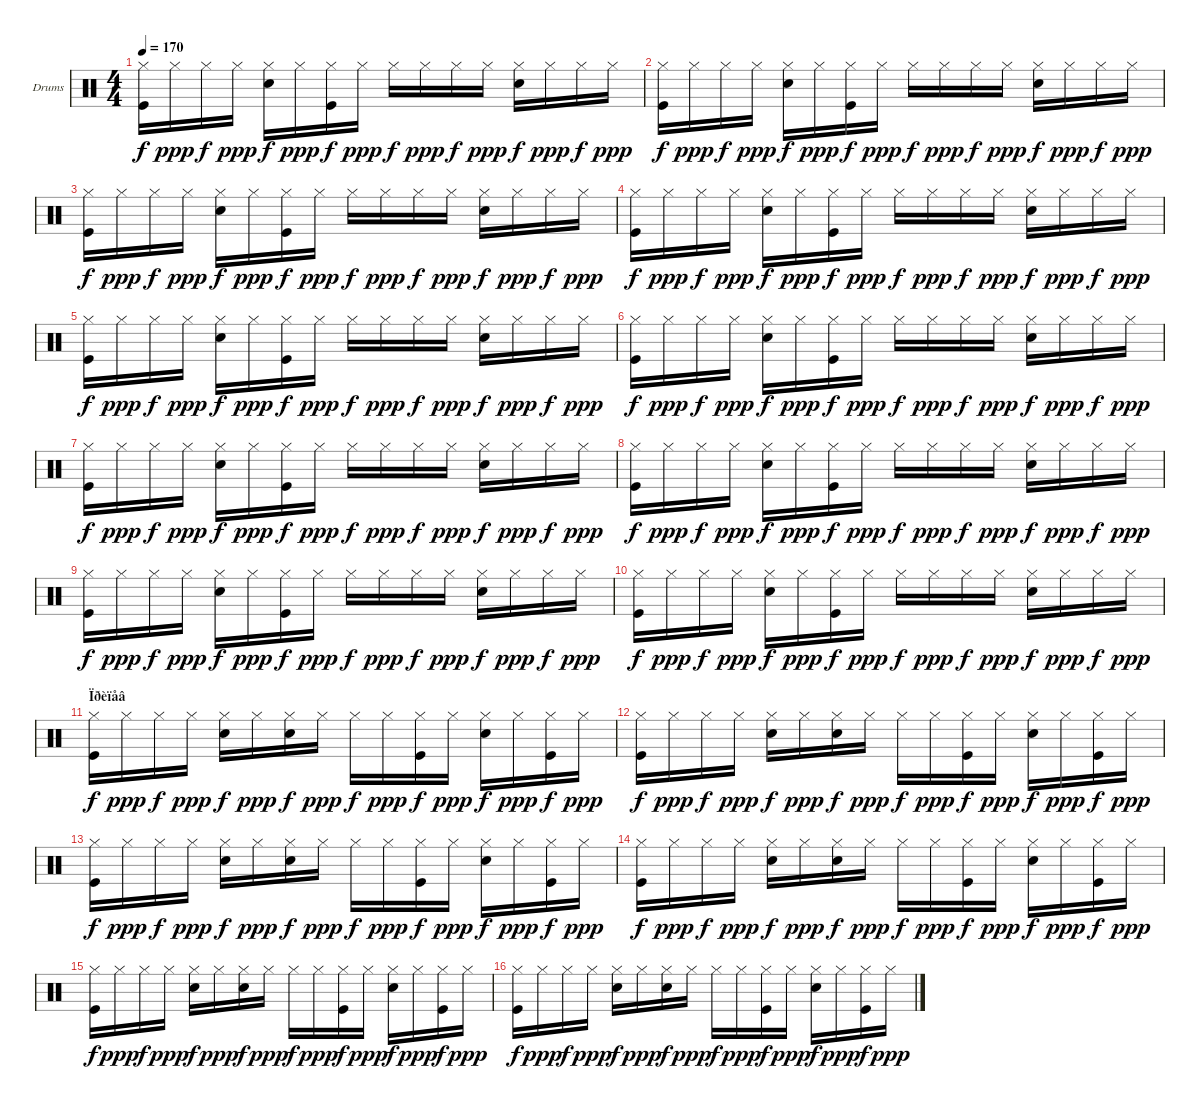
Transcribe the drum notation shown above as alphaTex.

\bracketExtendMode groupsimilarinstruments
\firstSystemTrackNameOrientation horizontal
\otherSystemsTrackNameOrientation horizontal
\track ("Drumkit" "Drums") {instrument percussion}
\staff {score}
\articulation defaults
\ts (4 4)
\tempo 170
\clef neutral
\ks c
("Hi-Hat (closed)" "Kick (hit)").16{dy f} "Hi-Hat (closed)".16{dy ppp} "Hi-Hat (closed)".16{dy f} "Hi-Hat (closed)".16{dy ppp} ("Hi-Hat (closed)" "Snare (hit) 2").16{dy f} "Hi-Hat (closed)".16{dy ppp} ("Hi-Hat (closed)" "Kick (hit)").16{dy f} "Hi-Hat (closed)".16{dy ppp} "Hi-Hat (closed)".16{dy f} "Hi-Hat (closed)".16{dy ppp} "Hi-Hat (closed)".16{dy f} "Hi-Hat (closed)".16{dy ppp} ("Hi-Hat (closed)" "Snare (hit) 2").16{dy f} "Hi-Hat (closed)".16{dy ppp} "Hi-Hat (closed)".16{dy f} "Hi-Hat (closed)".16{dy ppp} |
("Hi-Hat (closed)" "Kick (hit)").16{dy f} "Hi-Hat (closed)".16{dy ppp} "Hi-Hat (closed)".16{dy f} "Hi-Hat (closed)".16{dy ppp} ("Hi-Hat (closed)" "Snare (hit) 2").16{dy f} "Hi-Hat (closed)".16{dy ppp} ("Hi-Hat (closed)" "Kick (hit)").16{dy f} "Hi-Hat (closed)".16{dy ppp} "Hi-Hat (closed)".16{dy f} "Hi-Hat (closed)".16{dy ppp} "Hi-Hat (closed)".16{dy f} "Hi-Hat (closed)".16{dy ppp} ("Hi-Hat (closed)" "Snare (hit) 2").16{dy f} "Hi-Hat (closed)".16{dy ppp} "Hi-Hat (closed)".16{dy f} "Hi-Hat (closed)".16{dy ppp} |
("Hi-Hat (closed)" "Kick (hit)").16{dy f} "Hi-Hat (closed)".16{dy ppp} "Hi-Hat (closed)".16{dy f} "Hi-Hat (closed)".16{dy ppp} ("Hi-Hat (closed)" "Snare (hit) 2").16{dy f} "Hi-Hat (closed)".16{dy ppp} ("Hi-Hat (closed)" "Kick (hit)").16{dy f} "Hi-Hat (closed)".16{dy ppp} "Hi-Hat (closed)".16{dy f} "Hi-Hat (closed)".16{dy ppp} "Hi-Hat (closed)".16{dy f} "Hi-Hat (closed)".16{dy ppp} ("Hi-Hat (closed)" "Snare (hit) 2").16{dy f} "Hi-Hat (closed)".16{dy ppp} "Hi-Hat (closed)".16{dy f} "Hi-Hat (closed)".16{dy ppp} |
("Hi-Hat (closed)" "Kick (hit)").16{dy f} "Hi-Hat (closed)".16{dy ppp} "Hi-Hat (closed)".16{dy f} "Hi-Hat (closed)".16{dy ppp} ("Hi-Hat (closed)" "Snare (hit) 2").16{dy f} "Hi-Hat (closed)".16{dy ppp} ("Hi-Hat (closed)" "Kick (hit)").16{dy f} "Hi-Hat (closed)".16{dy ppp} "Hi-Hat (closed)".16{dy f} "Hi-Hat (closed)".16{dy ppp} "Hi-Hat (closed)".16{dy f} "Hi-Hat (closed)".16{dy ppp} ("Hi-Hat (closed)" "Snare (hit) 2").16{dy f} "Hi-Hat (closed)".16{dy ppp} "Hi-Hat (closed)".16{dy f} "Hi-Hat (closed)".16{dy ppp} |
("Hi-Hat (closed)" "Kick (hit)").16{dy f} "Hi-Hat (closed)".16{dy ppp} "Hi-Hat (closed)".16{dy f} "Hi-Hat (closed)".16{dy ppp} ("Hi-Hat (closed)" "Snare (hit) 2").16{dy f} "Hi-Hat (closed)".16{dy ppp} ("Hi-Hat (closed)" "Kick (hit)").16{dy f} "Hi-Hat (closed)".16{dy ppp} "Hi-Hat (closed)".16{dy f} "Hi-Hat (closed)".16{dy ppp} "Hi-Hat (closed)".16{dy f} "Hi-Hat (closed)".16{dy ppp} ("Hi-Hat (closed)" "Snare (hit) 2").16{dy f} "Hi-Hat (closed)".16{dy ppp} "Hi-Hat (closed)".16{dy f} "Hi-Hat (closed)".16{dy ppp} |
("Hi-Hat (closed)" "Kick (hit)").16{dy f} "Hi-Hat (closed)".16{dy ppp} "Hi-Hat (closed)".16{dy f} "Hi-Hat (closed)".16{dy ppp} ("Hi-Hat (closed)" "Snare (hit) 2").16{dy f} "Hi-Hat (closed)".16{dy ppp} ("Hi-Hat (closed)" "Kick (hit)").16{dy f} "Hi-Hat (closed)".16{dy ppp} "Hi-Hat (closed)".16{dy f} "Hi-Hat (closed)".16{dy ppp} "Hi-Hat (closed)".16{dy f} "Hi-Hat (closed)".16{dy ppp} ("Hi-Hat (closed)" "Snare (hit) 2").16{dy f} "Hi-Hat (closed)".16{dy ppp} "Hi-Hat (closed)".16{dy f} "Hi-Hat (closed)".16{dy ppp} |
("Hi-Hat (closed)" "Kick (hit)").16{dy f} "Hi-Hat (closed)".16{dy ppp} "Hi-Hat (closed)".16{dy f} "Hi-Hat (closed)".16{dy ppp} ("Hi-Hat (closed)" "Snare (hit) 2").16{dy f} "Hi-Hat (closed)".16{dy ppp} ("Hi-Hat (closed)" "Kick (hit)").16{dy f} "Hi-Hat (closed)".16{dy ppp} "Hi-Hat (closed)".16{dy f} "Hi-Hat (closed)".16{dy ppp} "Hi-Hat (closed)".16{dy f} "Hi-Hat (closed)".16{dy ppp} ("Hi-Hat (closed)" "Snare (hit) 2").16{dy f} "Hi-Hat (closed)".16{dy ppp} "Hi-Hat (closed)".16{dy f} "Hi-Hat (closed)".16{dy ppp} |
("Hi-Hat (closed)" "Kick (hit)").16{dy f} "Hi-Hat (closed)".16{dy ppp} "Hi-Hat (closed)".16{dy f} "Hi-Hat (closed)".16{dy ppp} ("Hi-Hat (closed)" "Snare (hit) 2").16{dy f} "Hi-Hat (closed)".16{dy ppp} ("Hi-Hat (closed)" "Kick (hit)").16{dy f} "Hi-Hat (closed)".16{dy ppp} "Hi-Hat (closed)".16{dy f} "Hi-Hat (closed)".16{dy ppp} "Hi-Hat (closed)".16{dy f} "Hi-Hat (closed)".16{dy ppp} ("Hi-Hat (closed)" "Snare (hit) 2").16{dy f} "Hi-Hat (closed)".16{dy ppp} "Hi-Hat (closed)".16{dy f} "Hi-Hat (closed)".16{dy ppp} |
("Hi-Hat (closed)" "Kick (hit)").16{dy f} "Hi-Hat (closed)".16{dy ppp} "Hi-Hat (closed)".16{dy f} "Hi-Hat (closed)".16{dy ppp} ("Hi-Hat (closed)" "Snare (hit) 2").16{dy f} "Hi-Hat (closed)".16{dy ppp} ("Hi-Hat (closed)" "Kick (hit)").16{dy f} "Hi-Hat (closed)".16{dy ppp} "Hi-Hat (closed)".16{dy f} "Hi-Hat (closed)".16{dy ppp} "Hi-Hat (closed)".16{dy f} "Hi-Hat (closed)".16{dy ppp} ("Hi-Hat (closed)" "Snare (hit) 2").16{dy f} "Hi-Hat (closed)".16{dy ppp} "Hi-Hat (closed)".16{dy f} "Hi-Hat (closed)".16{dy ppp} |
("Hi-Hat (closed)" "Kick (hit)").16{dy f} "Hi-Hat (closed)".16{dy ppp} "Hi-Hat (closed)".16{dy f} "Hi-Hat (closed)".16{dy ppp} ("Hi-Hat (closed)" "Snare (hit) 2").16{dy f} "Hi-Hat (closed)".16{dy ppp} ("Hi-Hat (closed)" "Kick (hit)").16{dy f} "Hi-Hat (closed)".16{dy ppp} "Hi-Hat (closed)".16{dy f} "Hi-Hat (closed)".16{dy ppp} "Hi-Hat (closed)".16{dy f} "Hi-Hat (closed)".16{dy ppp} ("Hi-Hat (closed)" "Snare (hit) 2").16{dy f} "Hi-Hat (closed)".16{dy ppp} "Hi-Hat (closed)".16{dy f} "Hi-Hat (closed)".16{dy ppp} |
\section ("" "Ïðèïåâ")
("Hi-Hat (closed)" "Kick (hit)").16{dy f} "Hi-Hat (closed)".16{dy ppp} "Hi-Hat (closed)".16{dy f} "Hi-Hat (closed)".16{dy ppp} ("Hi-Hat (closed)" "Snare (hit) 2").16{dy f} "Hi-Hat (closed)".16{dy ppp} ("Hi-Hat (closed)" "Snare (hit) 2").16{dy f} "Hi-Hat (closed)".16{dy ppp} "Hi-Hat (closed)".16{dy f} "Hi-Hat (closed)".16{dy ppp} ("Hi-Hat (closed)" "Kick (hit)").16{dy f} "Hi-Hat (closed)".16{dy ppp} ("Hi-Hat (closed)" "Snare (hit) 2").16{dy f} "Hi-Hat (closed)".16{dy ppp} ("Hi-Hat (closed)" "Kick (hit)").16{dy f} "Hi-Hat (closed)".16{dy ppp} |
("Hi-Hat (closed)" "Kick (hit)").16{dy f} "Hi-Hat (closed)".16{dy ppp} "Hi-Hat (closed)".16{dy f} "Hi-Hat (closed)".16{dy ppp} ("Hi-Hat (closed)" "Snare (hit) 2").16{dy f} "Hi-Hat (closed)".16{dy ppp} ("Hi-Hat (closed)" "Snare (hit) 2").16{dy f} "Hi-Hat (closed)".16{dy ppp} "Hi-Hat (closed)".16{dy f} "Hi-Hat (closed)".16{dy ppp} ("Hi-Hat (closed)" "Kick (hit)").16{dy f} "Hi-Hat (closed)".16{dy ppp} ("Hi-Hat (closed)" "Snare (hit) 2").16{dy f} "Hi-Hat (closed)".16{dy ppp} ("Hi-Hat (closed)" "Kick (hit)").16{dy f} "Hi-Hat (closed)".16{dy ppp} |
("Hi-Hat (closed)" "Kick (hit)").16{dy f} "Hi-Hat (closed)".16{dy ppp} "Hi-Hat (closed)".16{dy f} "Hi-Hat (closed)".16{dy ppp} ("Hi-Hat (closed)" "Snare (hit) 2").16{dy f} "Hi-Hat (closed)".16{dy ppp} ("Hi-Hat (closed)" "Snare (hit) 2").16{dy f} "Hi-Hat (closed)".16{dy ppp} "Hi-Hat (closed)".16{dy f} "Hi-Hat (closed)".16{dy ppp} ("Hi-Hat (closed)" "Kick (hit)").16{dy f} "Hi-Hat (closed)".16{dy ppp} ("Hi-Hat (closed)" "Snare (hit) 2").16{dy f} "Hi-Hat (closed)".16{dy ppp} ("Hi-Hat (closed)" "Kick (hit)").16{dy f} "Hi-Hat (closed)".16{dy ppp} |
("Hi-Hat (closed)" "Kick (hit)").16{dy f} "Hi-Hat (closed)".16{dy ppp} "Hi-Hat (closed)".16{dy f} "Hi-Hat (closed)".16{dy ppp} ("Hi-Hat (closed)" "Snare (hit) 2").16{dy f} "Hi-Hat (closed)".16{dy ppp} ("Hi-Hat (closed)" "Snare (hit) 2").16{dy f} "Hi-Hat (closed)".16{dy ppp} "Hi-Hat (closed)".16{dy f} "Hi-Hat (closed)".16{dy ppp} ("Hi-Hat (closed)" "Kick (hit)").16{dy f} "Hi-Hat (closed)".16{dy ppp} ("Hi-Hat (closed)" "Snare (hit) 2").16{dy f} "Hi-Hat (closed)".16{dy ppp} ("Hi-Hat (closed)" "Kick (hit)").16{dy f} "Hi-Hat (closed)".16{dy ppp} |
("Hi-Hat (closed)" "Kick (hit)").16{dy f} "Hi-Hat (closed)".16{dy ppp} "Hi-Hat (closed)".16{dy f} "Hi-Hat (closed)".16{dy ppp} ("Hi-Hat (closed)" "Snare (hit) 2").16{dy f} "Hi-Hat (closed)".16{dy ppp} ("Hi-Hat (closed)" "Snare (hit) 2").16{dy f} "Hi-Hat (closed)".16{dy ppp} "Hi-Hat (closed)".16{dy f} "Hi-Hat (closed)".16{dy ppp} ("Hi-Hat (closed)" "Kick (hit)").16{dy f} "Hi-Hat (closed)".16{dy ppp} ("Hi-Hat (closed)" "Snare (hit) 2").16{dy f} "Hi-Hat (closed)".16{dy ppp} ("Hi-Hat (closed)" "Kick (hit)").16{dy f} "Hi-Hat (closed)".16{dy ppp} |
("Hi-Hat (closed)" "Kick (hit)").16{dy f} "Hi-Hat (closed)".16{dy ppp} "Hi-Hat (closed)".16{dy f} "Hi-Hat (closed)".16{dy ppp} ("Hi-Hat (closed)" "Snare (hit) 2").16{dy f} "Hi-Hat (closed)".16{dy ppp} ("Hi-Hat (closed)" "Snare (hit) 2").16{dy f} "Hi-Hat (closed)".16{dy ppp} "Hi-Hat (closed)".16{dy f} "Hi-Hat (closed)".16{dy ppp} ("Hi-Hat (closed)" "Kick (hit)").16{dy f} "Hi-Hat (closed)".16{dy ppp} ("Hi-Hat (closed)" "Snare (hit) 2").16{dy f} "Hi-Hat (closed)".16{dy ppp} ("Hi-Hat (closed)" "Kick (hit)").16{dy f} "Hi-Hat (closed)".16{dy ppp}
